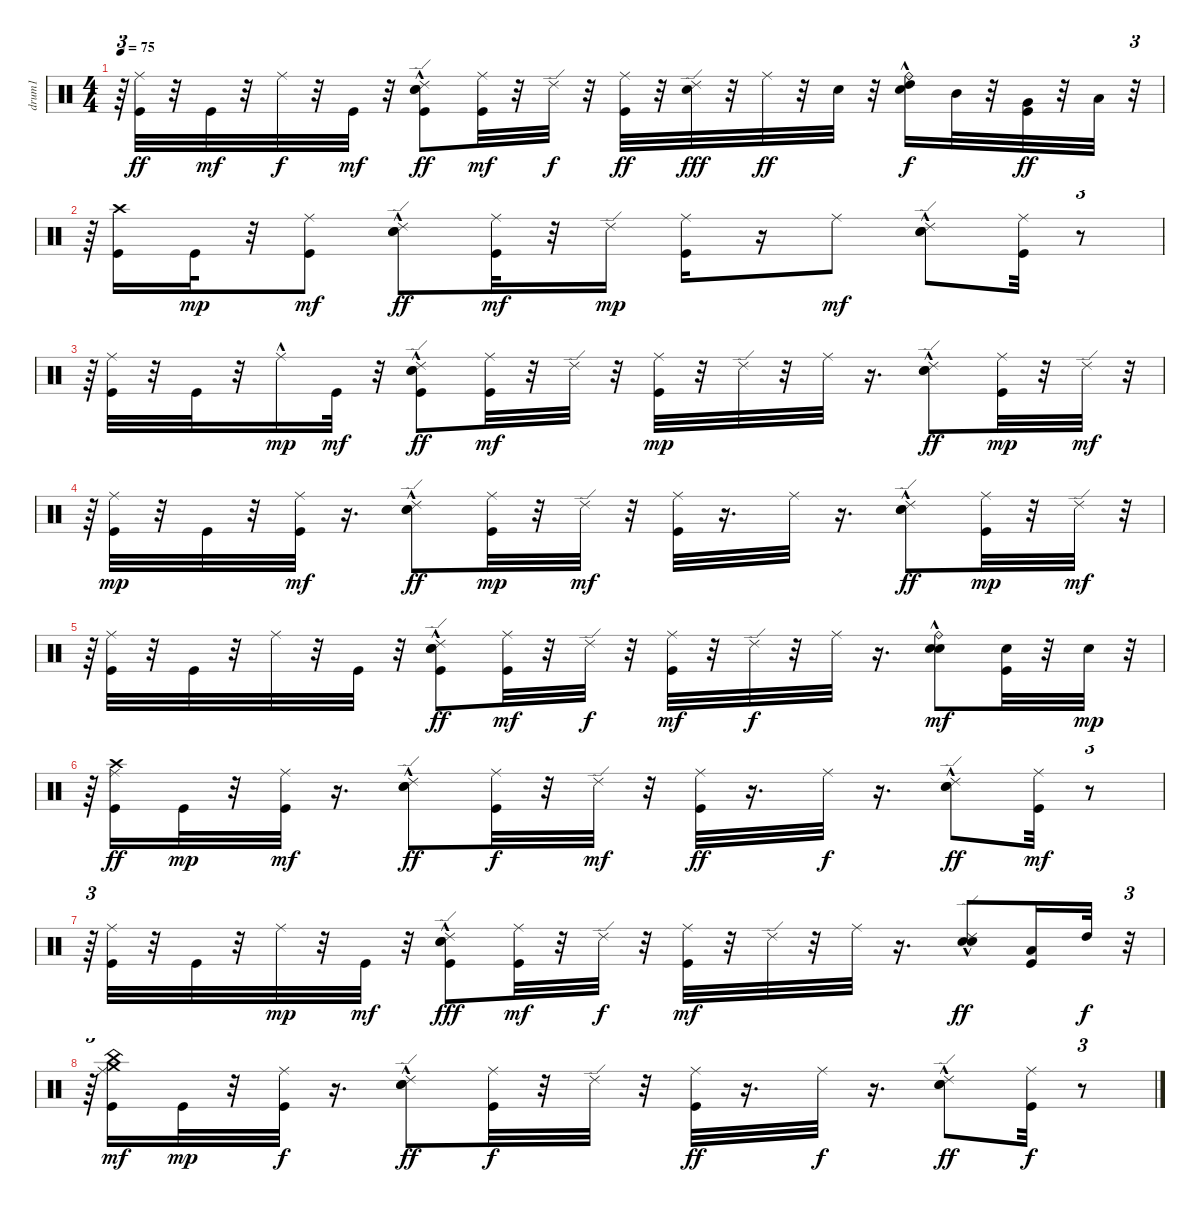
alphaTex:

\track ("drum1" "drum1") {instrument percussion}
\staff {score}
\articulation defaults
\ts (4 4)
\tempo 75
\clef neutral
\ks c
r.64{tu (3 2) dy f} ("Kick (hit)" "Ride (middle)").32{dy ff} r.32 "Kick (hit)".32{dy mf} r.32 "Ride (middle)".32{dy f} r.32 "Kick (hit)".32{dy mf} r.32 ("Kick (hit)" "Hand Clap (hit)"{hac} "Electric Snare (hit)" "Ride (edge) 2").8{dy ff} ("Kick (hit)" "Ride (middle)").32{dy mf} r.32 "Ride (edge) 2".32{dy f} r.32 ("Kick (hit)" "Ride (middle)").32{dy ff} r.32 ("Electric Snare (hit)" "Ride (edge) 2").32{dy fff} r.32 "Ride (middle)".32{dy ff} r.32 "Electric Snare (hit)".32 r.32 ("Hand Clap (hit)"{hac} "High Tom (hit)" "Ride (bell)").16{dy f} "Mid Tom (hit)".32 r.32 ("Kick (hit)" "Very Low Tom (hit)").32{dy ff} r.32 "Low Tom (hit)".32 r.32{tu (3 2)} |
r.64{tu (3 2)} ("Kick (hit)" "Crash high (hit)").16 "Kick (hit)".32{dy mp} r.32 ("Kick (hit)" "Ride (middle)").8{dy mf} ("Hand Clap (hit)"{hac} "Electric Snare (hit)" "Ride (edge) 2").8{dy ff} ("Kick (hit)" "Ride (middle)").32{dy mf} r.32 "Ride (edge) 2".16{dy mp} ("Kick (hit)" "Ride (middle)").16 r.16 "Ride (middle)".8{dy mf} ("Hand Clap (hit)"{hac} "Electric Snare (hit)" "Ride (edge) 2").8 ("Kick (hit)" "Ride (middle)").32 r.8{tu (3 2)} |
r.64{tu (3 2)} ("Kick (hit)" "Ride (middle)").32 r.32 "Kick (hit)".32 r.32 "Ride (middle)"{hac}.16{dy mp} "Kick (hit)".32{dy mf} r.32 ("Kick (hit)" "Hand Clap (hit)"{hac} "Electric Snare (hit)" "Ride (edge) 2").8{dy ff} ("Kick (hit)" "Ride (middle)").32{dy mf} r.32 "Ride (edge) 2".32 r.32 ("Kick (hit)" "Ride (middle)").32{dy mp} r.32 "Ride (edge) 2".32 r.32 "Ride (middle)".32 r.16{d} ("Hand Clap (hit)"{hac} "Electric Snare (hit)" "Ride (edge) 2").8{dy ff} ("Kick (hit)" "Ride (middle)").32{dy mp} r.32 "Ride (edge) 2".32{dy mf} r.32{tu (3 2)} |
r.64{tu (3 2)} ("Kick (hit)" "Ride (middle)").32{dy mp} r.32 "Kick (hit)".32 r.32 ("Kick (hit)" "Ride (middle)").32{dy mf} r.16{d} ("Hand Clap (hit)"{hac} "Electric Snare (hit)" "Ride (edge) 2").8{dy ff} ("Kick (hit)" "Ride (middle)").32{dy mp} r.32 "Ride (edge) 2".32{dy mf} r.32 ("Kick (hit)" "Ride (middle)").32 r.16{d} "Ride (middle)".32 r.16{d} ("Hand Clap (hit)"{hac} "Electric Snare (hit)" "Ride (edge) 2").8{dy ff} ("Kick (hit)" "Ride (middle)").32{dy mp} r.32 "Ride (edge) 2".32{dy mf} r.32{tu (3 2)} |
r.64{tu (3 2)} ("Kick (hit)" "Ride (middle)").32 r.32 "Kick (hit)".32 r.32 "Ride (middle)".32 r.32 "Kick (hit)".32 r.32 ("Kick (hit)" "Hand Clap (hit)"{hac} "Electric Snare (hit)" "Ride (edge) 2").8{dy ff} ("Kick (hit)" "Ride (middle)").32{dy mf} r.32 "Ride (edge) 2".32{dy f} r.32 ("Kick (hit)" "Ride (middle)").32{dy mf} r.32 "Ride (edge) 2".32{dy f} r.32 "Ride (middle)".32 r.16{d} ("Hand Clap (hit)"{hac} "Electric Snare (hit)" "Ride (bell)").8{dy mf} ("Kick (hit)" "Electric Snare (hit)").32 r.32 "Electric Snare (hit)".32{dy mp} r.32{tu (3 2)} |
r.64{tu (3 2)} ("Kick (hit)" "Crash high (hit)" "Ride (middle)").16{dy ff} "Kick (hit)".32{dy mp} r.32 ("Kick (hit)" "Ride (middle)").32{dy mf} r.16{d} ("Hand Clap (hit)"{hac} "Electric Snare (hit)" "Ride (edge) 2").8{dy ff} ("Kick (hit)" "Ride (middle)").32{dy f} r.32 "Ride (edge) 2".32{dy mf} r.32 ("Kick (hit)" "Ride (middle)").32{dy ff} r.16{d} "Ride (middle)".32{dy f} r.16{d} ("Hand Clap (hit)"{hac} "Electric Snare (hit)" "Ride (edge) 2").8{dy ff} ("Kick (hit)" "Ride (middle)").32{dy mf} r.8{tu (3 2)} |
r.64{tu (3 2)} ("Kick (hit)" "Ride (middle)").32 r.32 "Kick (hit)".32 r.32 "Ride (middle)".32{dy mp} r.32 "Kick (hit)".32{dy mf} r.32 ("Kick (hit)" "Hand Clap (hit)"{hac} "Electric Snare (hit)" "Ride (edge) 2").8{dy fff} ("Kick (hit)" "Ride (middle)").32{dy mf} r.32 "Ride (edge) 2".32{dy f} r.32 ("Kick (hit)" "Ride (middle)").32{dy mf} r.32 "Ride (edge) 2".32 r.32 "Ride (middle)".32 r.16{d} ("Hand Clap (hit)"{hac} "Electric Snare (hit)" "Ride (edge) 2").8{dy ff} ("Kick (hit)" "Low Tom (hit)").16 "High Tom (hit)".32{dy f} r.32{tu (3 2)} |
r.64{tu (3 2)} ("Kick (hit)" "Ride (middle)" "China (hit)" "Crash medium (hit)").16{dy mf} "Kick (hit)".32{dy mp} r.32 ("Kick (hit)" "Ride (middle)").32{dy f} r.16{d} ("Hand Clap (hit)"{hac} "Electric Snare (hit)" "Ride (edge) 2").8{dy ff} ("Kick (hit)" "Ride (middle)").32{dy f} r.32 "Ride (edge) 2".32 r.32 ("Kick (hit)" "Ride (middle)").32{dy ff} r.16{d} "Ride (middle)".32{dy f} r.16{d} ("Hand Clap (hit)"{hac} "Electric Snare (hit)" "Ride (edge) 2").8{dy ff} ("Kick (hit)" "Ride (middle)").32{dy f} r.8{tu (3 2)}
